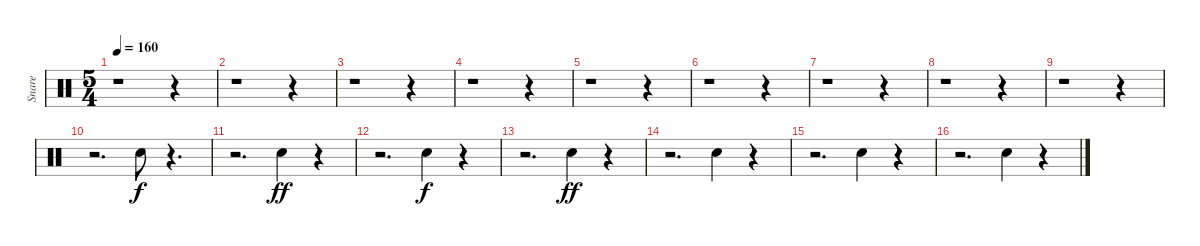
\track ("Snare" "Snare") {instrument percussion}
\staff {score}
\articulation defaults
\ts (5 4)
\tempo 160
\clef neutral
\ks c
r.1{dy f} r.4 |
r.1 r.4 |
r.1 r.4 |
r.1 r.4 |
r.1 r.4 |
r.1 r.4 |
r.1 r.4 |
r.1 r.4 |
r.1 r.4 |
r.2{d} "Electric Snare (hit)".8 r.4{d} |
r.2{d} "Electric Snare (hit)".4{dy ff} r.4 |
r.2{d} "Electric Snare (hit)".4{dy f} r.4 |
r.2{d} "Electric Snare (hit)".4{dy ff} r.4 |
r.2{d} "Electric Snare (hit)".4 r.4 |
r.2{d} "Electric Snare (hit)".4 r.4 |
r.2{d} "Electric Snare (hit)".4 r.4
